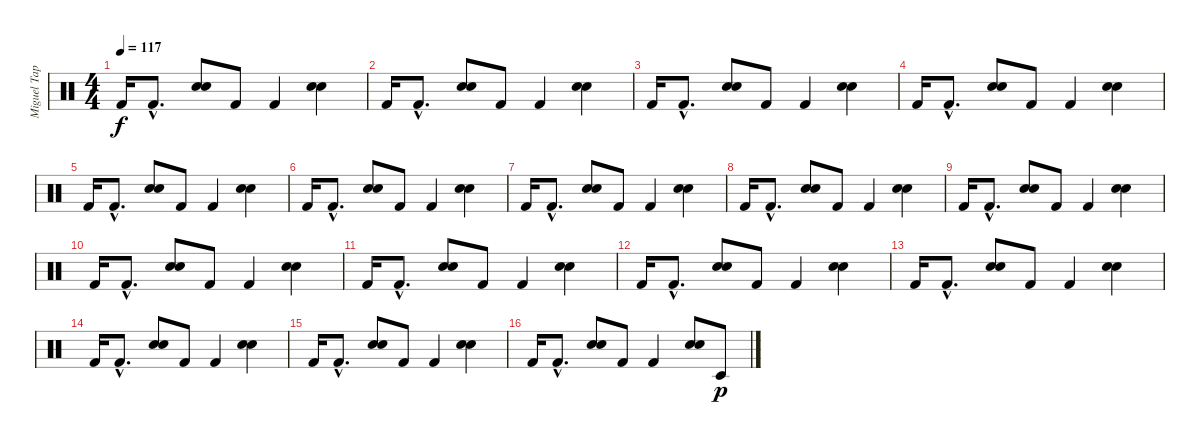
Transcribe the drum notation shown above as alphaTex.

\track ("Miguel Tapia" "Miguel Tap") {instrument percussion}
\staff {score}
\articulation defaults
\ts (4 4)
\tempo 117
\clef neutral
\ks c "Kick (hit) 2".16{dy f} "Kick (hit) 2"{hac}.8{d}
("Snare (hit) 2" "Electric Snare (hit)").8 "Kick (hit) 2".8 "Kick (hit) 2".4 ("Snare (hit) 2" "Electric Snare (hit)").4 |
"Kick (hit) 2".16 "Kick (hit) 2"{hac}.8{d} ("Snare (hit) 2" "Electric Snare (hit)").8 "Kick (hit) 2".8 "Kick (hit) 2".4 ("Snare (hit) 2" "Electric Snare (hit)").4 |
"Kick (hit) 2".16 "Kick (hit) 2"{hac}.8{d} ("Snare (hit) 2" "Electric Snare (hit)").8 "Kick (hit) 2".8 "Kick (hit) 2".4 ("Snare (hit) 2" "Electric Snare (hit)").4 |
"Kick (hit) 2".16 "Kick (hit) 2"{hac}.8{d} ("Snare (hit) 2" "Electric Snare (hit)").8 "Kick (hit) 2".8 "Kick (hit) 2".4 ("Snare (hit) 2" "Electric Snare (hit)").4 |
"Kick (hit) 2".16 "Kick (hit) 2"{hac}.8{d} ("Snare (hit) 2" "Electric Snare (hit)").8 "Kick (hit) 2".8 "Kick (hit) 2".4 ("Snare (hit) 2" "Electric Snare (hit)").4 |
"Kick (hit) 2".16 "Kick (hit) 2"{hac}.8{d} ("Snare (hit) 2" "Electric Snare (hit)").8 "Kick (hit) 2".8 "Kick (hit) 2".4 ("Snare (hit) 2" "Electric Snare (hit)").4 |
"Kick (hit) 2".16 "Kick (hit) 2"{hac}.8{d} ("Snare (hit) 2" "Electric Snare (hit)").8 "Kick (hit) 2".8 "Kick (hit) 2".4 ("Snare (hit) 2" "Electric Snare (hit)").4 |
"Kick (hit) 2".16 "Kick (hit) 2"{hac}.8{d} ("Snare (hit) 2" "Electric Snare (hit)").8 "Kick (hit) 2".8 "Kick (hit) 2".4 ("Snare (hit) 2" "Electric Snare (hit)").4 |
"Kick (hit) 2".16 "Kick (hit) 2"{hac}.8{d} ("Snare (hit) 2" "Electric Snare (hit)").8 "Kick (hit) 2".8 "Kick (hit) 2".4 ("Snare (hit) 2" "Electric Snare (hit)").4 |
"Kick (hit) 2".16 "Kick (hit) 2"{hac}.8{d} ("Snare (hit) 2" "Electric Snare (hit)").8 "Kick (hit) 2".8 "Kick (hit) 2".4 ("Snare (hit) 2" "Electric Snare (hit)").4 |
"Kick (hit) 2".16 "Kick (hit) 2"{hac}.8{d} ("Snare (hit) 2" "Electric Snare (hit)").8 "Kick (hit) 2".8 "Kick (hit) 2".4 ("Snare (hit) 2" "Electric Snare (hit)").4 |
"Kick (hit) 2".16 "Kick (hit) 2"{hac}.8{d} ("Snare (hit) 2" "Electric Snare (hit)").8 "Kick (hit) 2".8 "Kick (hit) 2".4 ("Snare (hit) 2" "Electric Snare (hit)").4 |
"Kick (hit) 2".16 "Kick (hit) 2"{hac}.8{d} ("Snare (hit) 2" "Electric Snare (hit)").8 "Kick (hit) 2".8 "Kick (hit) 2".4 ("Snare (hit) 2" "Electric Snare (hit)").4 |
"Kick (hit) 2".16 "Kick (hit) 2"{hac}.8{d} ("Snare (hit) 2" "Electric Snare (hit)").8 "Kick (hit) 2".8 "Kick (hit) 2".4 ("Snare (hit) 2" "Electric Snare (hit)").4 |
"Kick (hit) 2".16 "Kick (hit) 2"{hac}.8{d} ("Snare (hit) 2" "Electric Snare (hit)").8 "Kick (hit) 2".8 "Kick (hit) 2".4 ("Snare (hit) 2" "Electric Snare (hit)").4 |
"Kick (hit) 2".16 "Kick (hit) 2"{hac}.8{d} ("Snare (hit) 2" "Electric Snare (hit)").8 "Kick (hit) 2".8 "Kick (hit) 2".4 ("Snare (hit) 2" "Electric Snare (hit)").8 "Timbale low (hit)".8{dy p}
